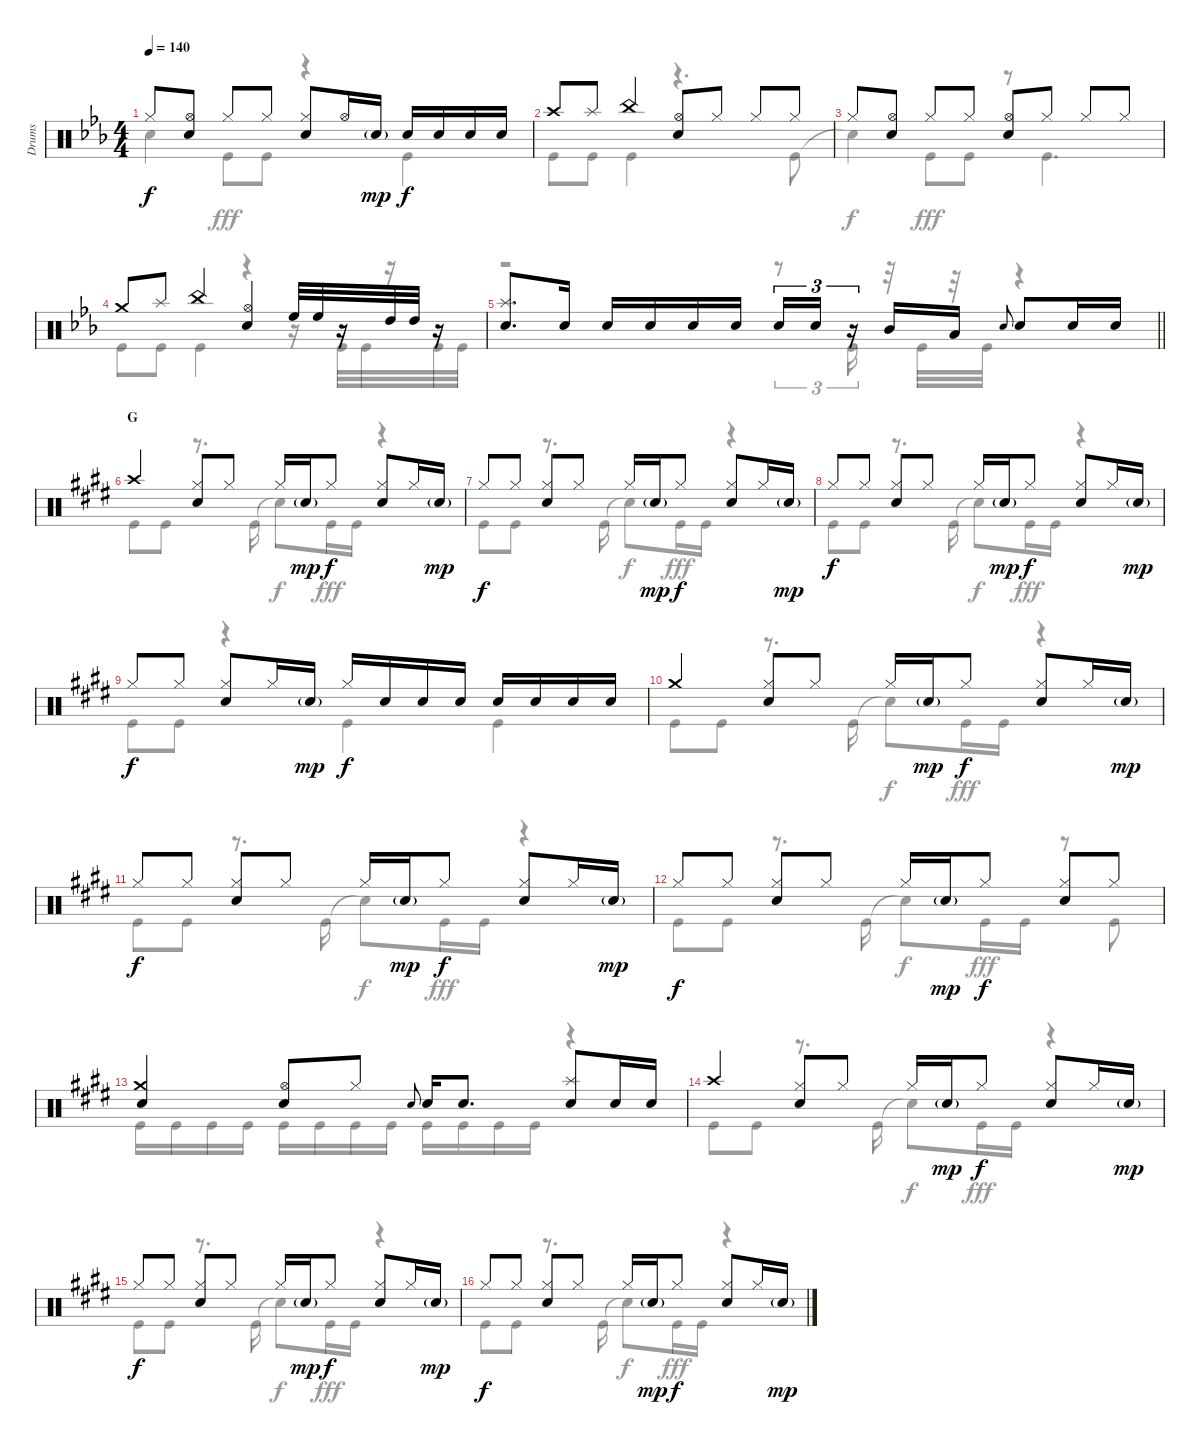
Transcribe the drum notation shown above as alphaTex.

\track ("Drums" "Drums") {instrument percussion}
\staff {score}
\articulation defaults
\voice
\ts (4 4)
\tempo 140
\clef neutral
\ks eb "Hi-Hat (closed)".8{dy f}
("Hi-Hat (open)" "Snare (hit) 2").8 "Hi-Hat (closed)".8 "Hi-Hat (closed)".8 ("Hi-Hat (closed)" "Snare (hit) 2").8 "Hi-Hat (open)".16 "Snare (hit) 2"{g}.16{dy mp} "Snare (hit) 2".16{dy f} "Snare (hit) 2".16 "Snare (hit) 2".16 "Snare (hit) 2".16 |
"Crash high (hit)".8 "Splash (hit)".8 "China (hit)".4 ("Hi-Hat (open)" "Snare (hit) 2").8 "Hi-Hat (closed)".8 "Hi-Hat (closed)".8 "Hi-Hat (closed)".8 |
"Hi-Hat (closed)".8 ("Hi-Hat (open)" "Snare (hit) 2").8 "Hi-Hat (closed)".8 "Hi-Hat (closed)".8 ("Hi-Hat (open)" "Snare (hit) 2").8 "Hi-Hat (closed)".8 "Hi-Hat (closed)".8 "Hi-Hat (closed)".8 |
"Crash medium (hit)".8 "Splash (hit)".8 "China (hit)".4 ("Hi-Hat (open)" "Snare (hit) 2").4 "High Floor Tom (hit)".32 "High Floor Tom (hit)".32 r.16 "High Tom (hit)".32 "High Tom (hit)".32 r.16 |
\barLineRight lightlight
("Splash (hit)" "Snare (hit) 2").8{d} "Snare (hit) 2".16 "Snare (hit) 2".16 "Snare (hit) 2".16 "Snare (hit) 2".16 "Snare (hit) 2".16 "Snare (hit) 2".16{tu (3 2)} "Snare (hit) 2".16{tu (3 2)} r.16{tu (3 2)} "Mid Tom (hit)".16 "Low Tom (hit)".16 "Snare (hit) 2".8{gr onbeat} "Snare (hit) 2".8 "Snare (hit) 2".16 "Snare (hit) 2".16 |
\section ("" "G")
\ks e "Crash high (hit)".4
("Hi-Hat (closed)" "Snare (hit) 2").8 "Hi-Hat (closed)".8 "Hi-Hat (closed)".16 "Snare (hit) 2"{g}.16{dy mp} "Hi-Hat (closed)".8{dy f} ("Hi-Hat (closed)" "Snare (hit) 2").8 "Hi-Hat (closed)".16 "Snare (hit) 2"{g}.16{dy mp} |
"Hi-Hat (closed)".8{dy f} "Hi-Hat (closed)".8 ("Hi-Hat (closed)" "Snare (hit) 2").8 "Hi-Hat (closed)".8 "Hi-Hat (closed)".16 "Snare (hit) 2"{g}.16{dy mp} "Hi-Hat (closed)".8{dy f} ("Hi-Hat (closed)" "Snare (hit) 2").8 "Hi-Hat (closed)".16 "Snare (hit) 2"{g}.16{dy mp} |
"Hi-Hat (closed)".8{dy f} "Hi-Hat (closed)".8 ("Hi-Hat (closed)" "Snare (hit) 2").8 "Hi-Hat (closed)".8 "Hi-Hat (closed)".16 "Snare (hit) 2"{g}.16{dy mp} "Hi-Hat (closed)".8{dy f} ("Hi-Hat (closed)" "Snare (hit) 2").8 "Hi-Hat (closed)".16 "Snare (hit) 2"{g}.16{dy mp} |
"Hi-Hat (closed)".8{dy f} "Hi-Hat (closed)".8 ("Hi-Hat (closed)" "Snare (hit) 2").8 "Hi-Hat (closed)".16 "Snare (hit) 2"{g}.16{dy mp} "Hi-Hat (closed)".16{dy f} "Snare (hit) 2".16 "Snare (hit) 2".16 "Snare (hit) 2".16 "Snare (hit) 2".16 "Snare (hit) 2".16 "Snare (hit) 2".16 "Snare (hit) 2".16 |
"Crash medium (hit)".4 ("Hi-Hat (closed)" "Snare (hit) 2").8 "Hi-Hat (closed)".8 "Hi-Hat (closed)".16 "Snare (hit) 2"{g}.16{dy mp} "Hi-Hat (closed)".8{dy f} ("Hi-Hat (closed)" "Snare (hit) 2").8 "Hi-Hat (closed)".16 "Snare (hit) 2"{g}.16{dy mp} |
"Hi-Hat (closed)".8{dy f} "Hi-Hat (closed)".8 ("Hi-Hat (closed)" "Snare (hit) 2").8 "Hi-Hat (closed)".8 "Hi-Hat (closed)".16 "Snare (hit) 2"{g}.16{dy mp} "Hi-Hat (closed)".8{dy f} ("Hi-Hat (closed)" "Snare (hit) 2").8 "Hi-Hat (closed)".16 "Snare (hit) 2"{g}.16{dy mp} |
"Hi-Hat (closed)".8{dy f} "Hi-Hat (closed)".8 ("Hi-Hat (closed)" "Snare (hit) 2").8 "Hi-Hat (closed)".8 "Hi-Hat (closed)".16 "Snare (hit) 2"{g}.16{dy mp} "Hi-Hat (closed)".8{dy f} ("Hi-Hat (closed)" "Snare (hit) 2").8 "Hi-Hat (closed)".8 |
("Crash medium (hit)" "Snare (hit) 2").4 ("Hi-Hat (open)" "Snare (hit) 2").8 "Hi-Hat (closed)".8 "Snare (hit) 2".8{gr onbeat} "Snare (hit) 2".16 "Snare (hit) 2".8{d} ("Splash (hit)" "Snare (hit) 2").8 "Snare (hit) 2".16 "Snare (hit) 2".16 |
"Crash high (hit)".4 ("Hi-Hat (closed)" "Snare (hit) 2").8 "Hi-Hat (closed)".8 "Hi-Hat (closed)".16 "Snare (hit) 2"{g}.16{dy mp} "Hi-Hat (closed)".8{dy f} ("Hi-Hat (closed)" "Snare (hit) 2").8 "Hi-Hat (closed)".16 "Snare (hit) 2"{g}.16{dy mp} |
"Hi-Hat (closed)".8{dy f} "Hi-Hat (closed)".8 ("Hi-Hat (closed)" "Snare (hit) 2").8 "Hi-Hat (closed)".8 "Hi-Hat (closed)".16 "Snare (hit) 2"{g}.16{dy mp} "Hi-Hat (closed)".8{dy f} ("Hi-Hat (closed)" "Snare (hit) 2").8 "Hi-Hat (closed)".16 "Snare (hit) 2"{g}.16{dy mp} |
"Hi-Hat (closed)".8{dy f} "Hi-Hat (closed)".8 ("Hi-Hat (closed)" "Snare (hit) 2").8 "Hi-Hat (closed)".8 "Hi-Hat (closed)".16 "Snare (hit) 2"{g}.16{dy mp} "Hi-Hat (closed)".8{dy f} ("Hi-Hat (closed)" "Snare (hit) 2").8 "Hi-Hat (closed)".16 "Snare (hit) 2"{g}.16{dy mp}
\voice
\clef neutral
\ottava regular
\simile none
\ks eb "Snare (hit)"{t}.4{dy f} "Kick (hit)".8{dy fff} "Kick (hit)".8
r.4 "Kick (hit)".4 |
"Kick (hit)".8 "Kick (hit)".8 "Kick (hit)".4 r.4{d} "Kick (hit)".8 |
"Snare (hit)"{t}.4{dy f} "Kick (hit)".8{dy fff} "Kick (hit)".8 r.8 "Kick (hit)".4{d} |
"Kick (hit)".8 "Kick (hit)".8 "Kick (hit)".4 r.4 r.16 "Kick (hit)".32 "Kick (hit)".32 r.16 "Kick (hit)".32 "Kick (hit)".32 |
\barLineRight lightlight
r.2 r.8{tu (3 2)} "Kick (hit)".16{tu (3 2)} r.32 "Kick (hit)".32 r.32 "Kick (hit)".32 r.4 |
\ks e "Kick (hit)".8 "Kick (hit)".8
r.8{d} "Kick (hit)".16 "Snare (hit)"{t}.8{dy f} "Kick (hit)".16{dy fff} "Kick (hit)".16 r.4 |
"Kick (hit)".8 "Kick (hit)".8 r.8{d} "Kick (hit)".16 "Snare (hit)"{t}.8{dy f} "Kick (hit)".16{dy fff} "Kick (hit)".16 r.4 |
"Kick (hit)".8 "Kick (hit)".8 r.8{d} "Kick (hit)".16 "Snare (hit)"{t}.8{dy f} "Kick (hit)".16{dy fff} "Kick (hit)".16 r.4 |
"Kick (hit)".8 "Kick (hit)".8 r.4 "Kick (hit)".4 "Kick (hit)".4 |
"Kick (hit)".8 "Kick (hit)".8 r.8{d} "Kick (hit)".16 "Snare (hit)"{t}.8{dy f} "Kick (hit)".16{dy fff} "Kick (hit)".16 r.4 |
"Kick (hit)".8 "Kick (hit)".8 r.8{d} "Kick (hit)".16 "Snare (hit)"{t}.8{dy f} "Kick (hit)".16{dy fff} "Kick (hit)".16 r.4 |
"Kick (hit)".8 "Kick (hit)".8 r.8{d} "Kick (hit)".16 "Snare (hit)"{t}.8{dy f} "Kick (hit)".16{dy fff} "Kick (hit)".16 r.8 "Kick (hit)".8 |
"Kick (hit)".16 "Kick (hit)".16 "Kick (hit)".16 "Kick (hit)".16 "Kick (hit)".16 "Kick (hit)".16 "Kick (hit)".16 "Kick (hit)".16 "Kick (hit)".16 "Kick (hit)".16 "Kick (hit)".16 "Kick (hit)".16 r.4 |
"Kick (hit)".8 "Kick (hit)".8 r.8{d} "Kick (hit)".16 "Snare (hit)"{t}.8{dy f} "Kick (hit)".16{dy fff} "Kick (hit)".16 r.4 |
"Kick (hit)".8 "Kick (hit)".8 r.8{d} "Kick (hit)".16 "Snare (hit)"{t}.8{dy f} "Kick (hit)".16{dy fff} "Kick (hit)".16 r.4 |
"Kick (hit)".8 "Kick (hit)".8 r.8{d} "Kick (hit)".16 "Snare (hit)"{t}.8{dy f} "Kick (hit)".16{dy fff} "Kick (hit)".16 r.4
